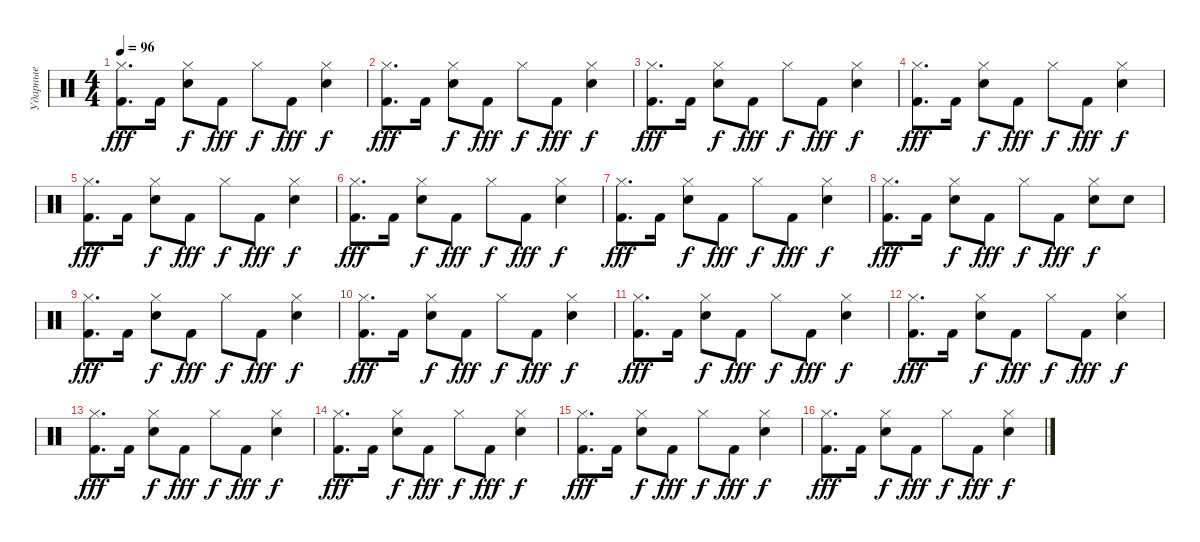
\track ("Ударные" "Ударные") {instrument percussion}
\staff {score}
\articulation defaults
\ts (4 4)
\tempo 96
\clef neutral
\ks aminor
("Hi-Hat (closed)" "Kick (hit) 2").8{d dy fff} "Kick (hit) 2".16 ("Hi-Hat (closed)" "Snare (hit) 2").8{dy f} "Kick (hit) 2".8{dy fff} "Hi-Hat (closed)".8{dy f} "Kick (hit) 2".8{dy fff} ("Hi-Hat (closed)" "Snare (hit) 2").4{dy f} |
("Hi-Hat (closed)" "Kick (hit) 2").8{d dy fff} "Kick (hit) 2".16 ("Hi-Hat (closed)" "Snare (hit) 2").8{dy f} "Kick (hit) 2".8{dy fff} "Hi-Hat (closed)".8{dy f} "Kick (hit) 2".8{dy fff} ("Hi-Hat (closed)" "Snare (hit) 2").4{dy f} |
("Hi-Hat (closed)" "Kick (hit) 2").8{d dy fff} "Kick (hit) 2".16 ("Hi-Hat (closed)" "Snare (hit) 2").8{dy f} "Kick (hit) 2".8{dy fff} "Hi-Hat (closed)".8{dy f} "Kick (hit) 2".8{dy fff} ("Hi-Hat (closed)" "Snare (hit) 2").4{dy f} |
("Hi-Hat (closed)" "Kick (hit) 2").8{d dy fff} "Kick (hit) 2".16 ("Hi-Hat (closed)" "Snare (hit) 2").8{dy f} "Kick (hit) 2".8{dy fff} "Hi-Hat (closed)".8{dy f} "Kick (hit) 2".8{dy fff} ("Hi-Hat (closed)" "Snare (hit) 2").4{dy f} |
("Hi-Hat (closed)" "Kick (hit) 2").8{d dy fff} "Kick (hit) 2".16 ("Hi-Hat (closed)" "Snare (hit) 2").8{dy f} "Kick (hit) 2".8{dy fff} "Hi-Hat (closed)".8{dy f} "Kick (hit) 2".8{dy fff} ("Hi-Hat (closed)" "Snare (hit) 2").4{dy f} |
("Hi-Hat (closed)" "Kick (hit) 2").8{d dy fff} "Kick (hit) 2".16 ("Hi-Hat (closed)" "Snare (hit) 2").8{dy f} "Kick (hit) 2".8{dy fff} "Hi-Hat (closed)".8{dy f} "Kick (hit) 2".8{dy fff} ("Hi-Hat (closed)" "Snare (hit) 2").4{dy f} |
("Hi-Hat (closed)" "Kick (hit) 2").8{d dy fff} "Kick (hit) 2".16 ("Hi-Hat (closed)" "Snare (hit) 2").8{dy f} "Kick (hit) 2".8{dy fff} "Hi-Hat (closed)".8{dy f} "Kick (hit) 2".8{dy fff} ("Hi-Hat (closed)" "Snare (hit) 2").4{dy f} |
("Hi-Hat (closed)" "Kick (hit) 2").8{d dy fff} "Kick (hit) 2".16 ("Hi-Hat (closed)" "Snare (hit) 2").8{dy f} "Kick (hit) 2".8{dy fff} "Hi-Hat (closed)".8{dy f} "Kick (hit) 2".8{dy fff} ("Hi-Hat (closed)" "Snare (hit) 2").8{dy f} "Snare (hit) 2".8 |
("Hi-Hat (closed)" "Kick (hit) 2").8{d dy fff} "Kick (hit) 2".16 ("Hi-Hat (closed)" "Snare (hit) 2").8{dy f} "Kick (hit) 2".8{dy fff} "Hi-Hat (closed)".8{dy f} "Kick (hit) 2".8{dy fff} ("Hi-Hat (closed)" "Snare (hit) 2").4{dy f} |
("Hi-Hat (closed)" "Kick (hit) 2").8{d dy fff} "Kick (hit) 2".16 ("Hi-Hat (closed)" "Snare (hit) 2").8{dy f} "Kick (hit) 2".8{dy fff} "Hi-Hat (closed)".8{dy f} "Kick (hit) 2".8{dy fff} ("Hi-Hat (closed)" "Snare (hit) 2").4{dy f} |
("Hi-Hat (closed)" "Kick (hit) 2").8{d dy fff} "Kick (hit) 2".16 ("Hi-Hat (closed)" "Snare (hit) 2").8{dy f} "Kick (hit) 2".8{dy fff} "Hi-Hat (closed)".8{dy f} "Kick (hit) 2".8{dy fff} ("Hi-Hat (closed)" "Snare (hit) 2").4{dy f} |
("Hi-Hat (closed)" "Kick (hit) 2").8{d dy fff} "Kick (hit) 2".16 ("Hi-Hat (closed)" "Snare (hit) 2").8{dy f} "Kick (hit) 2".8{dy fff} "Hi-Hat (closed)".8{dy f} "Kick (hit) 2".8{dy fff} ("Hi-Hat (closed)" "Snare (hit) 2").4{dy f} |
("Hi-Hat (closed)" "Kick (hit) 2").8{d dy fff} "Kick (hit) 2".16 ("Hi-Hat (closed)" "Snare (hit) 2").8{dy f} "Kick (hit) 2".8{dy fff} "Hi-Hat (closed)".8{dy f} "Kick (hit) 2".8{dy fff} ("Hi-Hat (closed)" "Snare (hit) 2").4{dy f} |
("Hi-Hat (closed)" "Kick (hit) 2").8{d dy fff} "Kick (hit) 2".16 ("Hi-Hat (closed)" "Snare (hit) 2").8{dy f} "Kick (hit) 2".8{dy fff} "Hi-Hat (closed)".8{dy f} "Kick (hit) 2".8{dy fff} ("Hi-Hat (closed)" "Snare (hit) 2").4{dy f} |
("Hi-Hat (closed)" "Kick (hit) 2").8{d dy fff} "Kick (hit) 2".16 ("Hi-Hat (closed)" "Snare (hit) 2").8{dy f} "Kick (hit) 2".8{dy fff} "Hi-Hat (closed)".8{dy f} "Kick (hit) 2".8{dy fff} ("Hi-Hat (closed)" "Snare (hit) 2").4{dy f} |
("Hi-Hat (closed)" "Kick (hit) 2").8{d dy fff} "Kick (hit) 2".16 ("Hi-Hat (closed)" "Snare (hit) 2").8{dy f} "Kick (hit) 2".8{dy fff} "Hi-Hat (closed)".8{dy f} "Kick (hit) 2".8{dy fff} ("Hi-Hat (closed)" "Snare (hit) 2").4{dy f}
